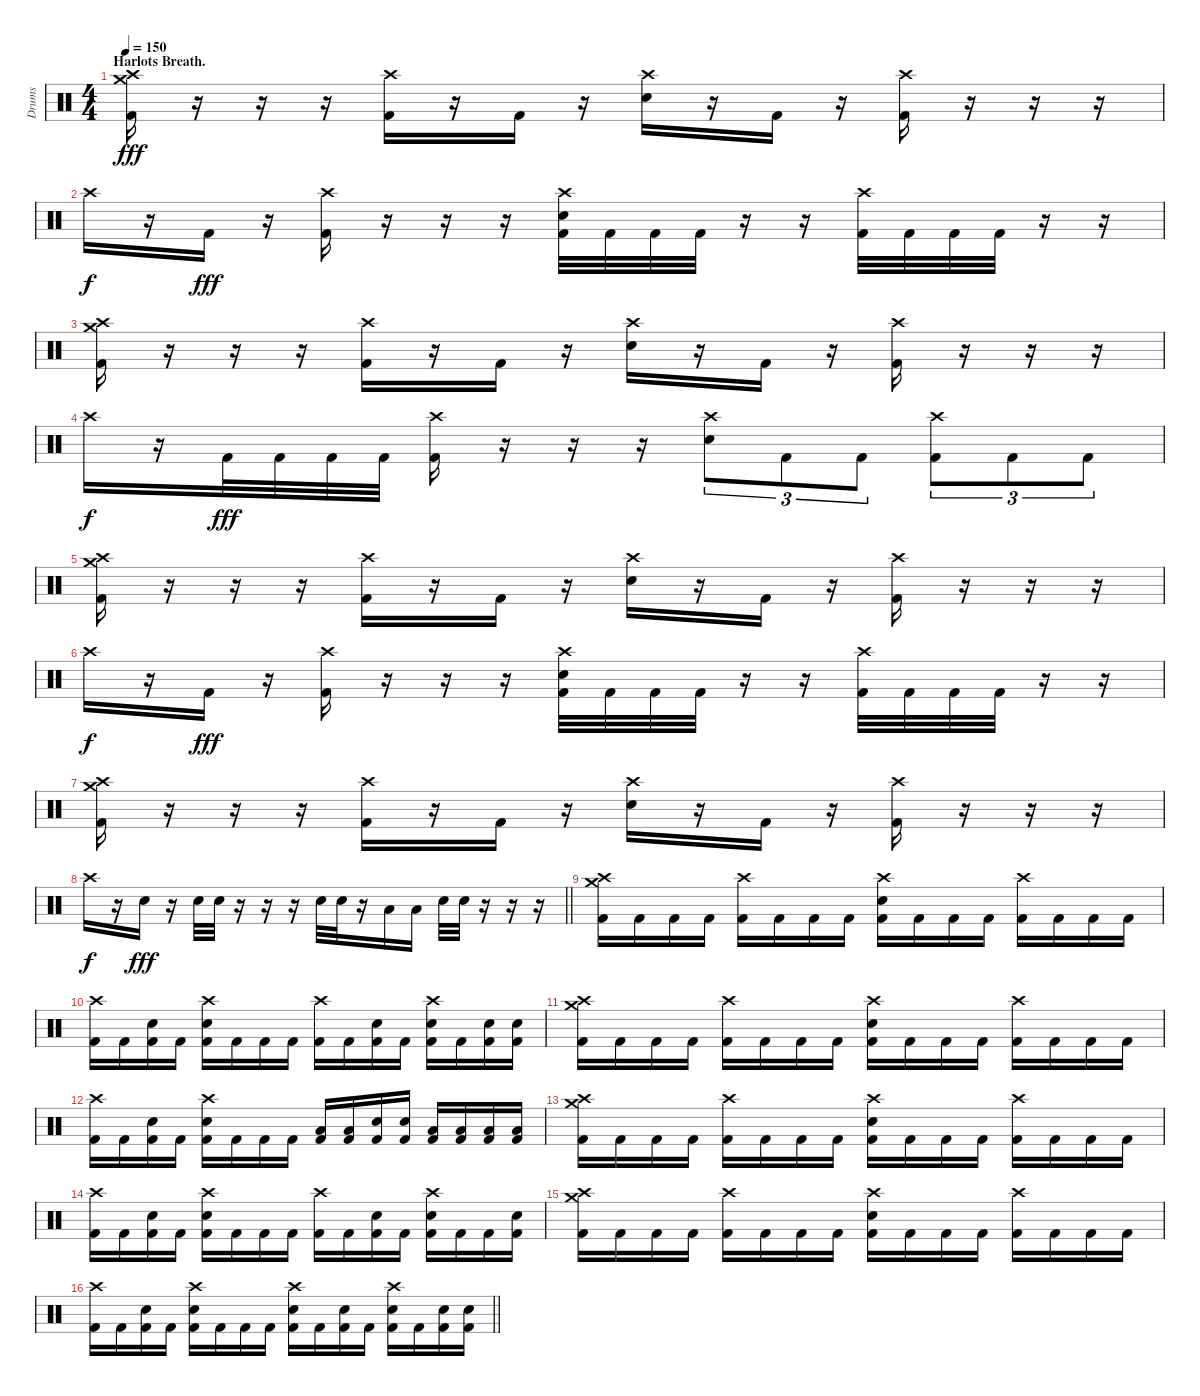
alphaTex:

\track ("Drums" "Drums") {instrument percussion}
\staff {score}
\articulation defaults
\ts (4 4)
\section ("" "Harlots Breath.")
\tempo 150
\clef neutral
\ks c
("Crash high (hit)" "Crash medium (hit)" "Kick (hit) 2").16{dy fff} r.16 r.16 r.16 ("Crash high (hit)" "Kick (hit) 2").16 r.16 "Kick (hit) 2".16 r.16 ("Crash high (hit)" "Electric Snare (hit)").16 r.16 "Kick (hit) 2".16 r.16 ("Crash high (hit)" "Kick (hit) 2").16 r.16 r.16 r.16 |
"Crash high (hit)".16{dy f} r.16 "Kick (hit) 2".16{dy fff} r.16 ("Crash high (hit)" "Kick (hit) 2").16 r.16 r.16 r.16 ("Crash high (hit)" "Electric Snare (hit)" "Kick (hit) 2").32 "Kick (hit) 2".32 "Kick (hit) 2".32 "Kick (hit) 2".32 r.16 r.16 ("Crash high (hit)" "Kick (hit) 2").32 "Kick (hit) 2".32 "Kick (hit) 2".32 "Kick (hit) 2".32 r.16 r.16 |
("Crash high (hit)" "Crash medium (hit)" "Kick (hit) 2").16 r.16 r.16 r.16 ("Crash high (hit)" "Kick (hit) 2").16 r.16 "Kick (hit) 2".16 r.16 ("Crash high (hit)" "Electric Snare (hit)").16 r.16 "Kick (hit) 2".16 r.16 ("Crash high (hit)" "Kick (hit) 2").16 r.16 r.16 r.16 |
"Crash high (hit)".16{dy f} r.16 "Kick (hit) 2".32{dy fff} "Kick (hit) 2".32 "Kick (hit) 2".32 "Kick (hit) 2".32 ("Crash high (hit)" "Kick (hit) 2").16 r.16 r.16 r.16 ("Crash high (hit)" "Electric Snare (hit)").8{tu (3 2)} "Kick (hit) 2".8{tu (3 2)} "Kick (hit) 2".8{tu (3 2)} ("Crash high (hit)" "Kick (hit) 2").8{tu (3 2)} "Kick (hit) 2".8{tu (3 2)} "Kick (hit) 2".8{tu (3 2)} |
("Crash high (hit)" "Crash medium (hit)" "Kick (hit) 2").16 r.16 r.16 r.16 ("Crash high (hit)" "Kick (hit) 2").16 r.16 "Kick (hit) 2".16 r.16 ("Crash high (hit)" "Electric Snare (hit)").16 r.16 "Kick (hit) 2".16 r.16 ("Crash high (hit)" "Kick (hit) 2").16 r.16 r.16 r.16 |
"Crash high (hit)".16{dy f} r.16 "Kick (hit) 2".16{dy fff} r.16 ("Crash high (hit)" "Kick (hit) 2").16 r.16 r.16 r.16 ("Crash high (hit)" "Electric Snare (hit)" "Kick (hit) 2").32 "Kick (hit) 2".32 "Kick (hit) 2".32 "Kick (hit) 2".32 r.16 r.16 ("Crash high (hit)" "Kick (hit) 2").32 "Kick (hit) 2".32 "Kick (hit) 2".32 "Kick (hit) 2".32 r.16 r.16 |
("Crash high (hit)" "Crash medium (hit)" "Kick (hit) 2").16 r.16 r.16 r.16 ("Crash high (hit)" "Kick (hit) 2").16 r.16 "Kick (hit) 2".16 r.16 ("Crash high (hit)" "Electric Snare (hit)").16 r.16 "Kick (hit) 2".16 r.16 ("Crash high (hit)" "Kick (hit) 2").16 r.16 r.16 r.16 |
\barLineRight lightlight "Crash high (hit)".16{dy f}
r.16 "Electric Snare (hit)".16{dy fff} r.16 "Electric Snare (hit)".32 "Electric Snare (hit)".32 r.16 r.16 r.16 "Electric Snare (hit)".32 "Electric Snare (hit)".32 r.16 "Low Tom (hit)".16 "Low Floor Tom (hit)".16 "Electric Snare (hit)".32 "Electric Snare (hit)".32 r.16 r.16 r.16 |
\section ("" "")
("Crash high (hit)" "Crash medium (hit)" "Kick (hit) 2").16 "Kick (hit) 2".16 "Kick (hit) 2".16 "Kick (hit) 2".16 ("Crash high (hit)" "Kick (hit) 2").16 "Kick (hit) 2".16 "Kick (hit) 2".16 "Kick (hit) 2".16 ("Crash high (hit)" "Electric Snare (hit)" "Kick (hit) 2").16 "Kick (hit) 2".16 "Kick (hit) 2".16 "Kick (hit) 2".16 ("Crash high (hit)" "Kick (hit) 2").16 "Kick (hit) 2".16 "Kick (hit) 2".16 "Kick (hit) 2".16 |
("Crash high (hit)" "Kick (hit) 2").16 "Kick (hit) 2".16 ("Electric Snare (hit)" "Kick (hit) 2").16 "Kick (hit) 2".16 ("Crash high (hit)" "Electric Snare (hit)" "Kick (hit) 2").16 "Kick (hit) 2".16 "Kick (hit) 2".16 "Kick (hit) 2".16 ("Crash high (hit)" "Kick (hit) 2").16 "Kick (hit) 2".16 ("Electric Snare (hit)" "Kick (hit) 2").16 "Kick (hit) 2".16 ("Crash high (hit)" "Electric Snare (hit)" "Kick (hit) 2").16 "Kick (hit) 2".16 ("Electric Snare (hit)" "Kick (hit) 2").16 ("Electric Snare (hit)" "Kick (hit) 2").16 |
("Crash high (hit)" "Crash medium (hit)" "Kick (hit) 2").16 "Kick (hit) 2".16 "Kick (hit) 2".16 "Kick (hit) 2".16 ("Crash high (hit)" "Kick (hit) 2").16 "Kick (hit) 2".16 "Kick (hit) 2".16 "Kick (hit) 2".16 ("Crash high (hit)" "Electric Snare (hit)" "Kick (hit) 2").16 "Kick (hit) 2".16 "Kick (hit) 2".16 "Kick (hit) 2".16 ("Crash high (hit)" "Kick (hit) 2").16 "Kick (hit) 2".16 "Kick (hit) 2".16 "Kick (hit) 2".16 |
("Crash high (hit)" "Kick (hit) 2").16 "Kick (hit) 2".16 ("Electric Snare (hit)" "Kick (hit) 2").16 "Kick (hit) 2".16 ("Crash high (hit)" "Electric Snare (hit)" "Kick (hit) 2").16 "Kick (hit) 2".16 "Kick (hit) 2".16 "Kick (hit) 2".16 ("Low Tom (hit)" "Kick (hit) 2").16 ("Low Tom (hit)" "Kick (hit) 2").16 ("Electric Snare (hit)" "Kick (hit) 2").16 ("Electric Snare (hit)" "Kick (hit) 2").16 ("Low Tom (hit)" "Kick (hit) 2").16 ("Low Floor Tom (hit)" "Kick (hit) 2").16 ("Low Floor Tom (hit)" "Kick (hit) 2").16 ("Low Floor Tom (hit)" "Kick (hit) 2").16 |
("Crash high (hit)" "Crash medium (hit)" "Kick (hit) 2").16 "Kick (hit) 2".16 "Kick (hit) 2".16 "Kick (hit) 2".16 ("Crash high (hit)" "Kick (hit) 2").16 "Kick (hit) 2".16 "Kick (hit) 2".16 "Kick (hit) 2".16 ("Crash high (hit)" "Electric Snare (hit)" "Kick (hit) 2").16 "Kick (hit) 2".16 "Kick (hit) 2".16 "Kick (hit) 2".16 ("Crash high (hit)" "Kick (hit) 2").16 "Kick (hit) 2".16 "Kick (hit) 2".16 "Kick (hit) 2".16 |
("Crash high (hit)" "Kick (hit) 2").16 "Kick (hit) 2".16 ("Electric Snare (hit)" "Kick (hit) 2").16 "Kick (hit) 2".16 ("Crash high (hit)" "Electric Snare (hit)" "Kick (hit) 2").16 "Kick (hit) 2".16 "Kick (hit) 2".16 "Kick (hit) 2".16 ("Crash high (hit)" "Kick (hit) 2").16 "Kick (hit) 2".16 ("Electric Snare (hit)" "Kick (hit) 2").16 "Kick (hit) 2".16 ("Crash high (hit)" "Electric Snare (hit)" "Kick (hit) 2").16 "Kick (hit) 2".16 "Kick (hit) 2".16 ("Electric Snare (hit)" "Kick (hit) 2").16 |
("Crash high (hit)" "Crash medium (hit)" "Kick (hit) 2").16 "Kick (hit) 2".16 "Kick (hit) 2".16 "Kick (hit) 2".16 ("Crash high (hit)" "Kick (hit) 2").16 "Kick (hit) 2".16 "Kick (hit) 2".16 "Kick (hit) 2".16 ("Crash high (hit)" "Electric Snare (hit)" "Kick (hit) 2").16 "Kick (hit) 2".16 "Kick (hit) 2".16 "Kick (hit) 2".16 ("Crash high (hit)" "Kick (hit) 2").16 "Kick (hit) 2".16 "Kick (hit) 2".16 "Kick (hit) 2".16 |
\barLineRight lightlight
("Crash high (hit)" "Kick (hit) 2").16 "Kick (hit) 2".16 ("Electric Snare (hit)" "Kick (hit) 2").16 "Kick (hit) 2".16 ("Crash high (hit)" "Electric Snare (hit)" "Kick (hit) 2").16 "Kick (hit) 2".16 "Kick (hit) 2".16 "Kick (hit) 2".16 ("Crash high (hit)" "Electric Snare (hit)" "Kick (hit) 2").16 "Kick (hit) 2".16 ("Electric Snare (hit)" "Kick (hit) 2").16 "Kick (hit) 2".16 ("Crash high (hit)" "Electric Snare (hit)" "Kick (hit) 2").16 "Kick (hit) 2".16 ("Electric Snare (hit)" "Kick (hit) 2").16 ("Electric Snare (hit)" "Kick (hit) 2").16
